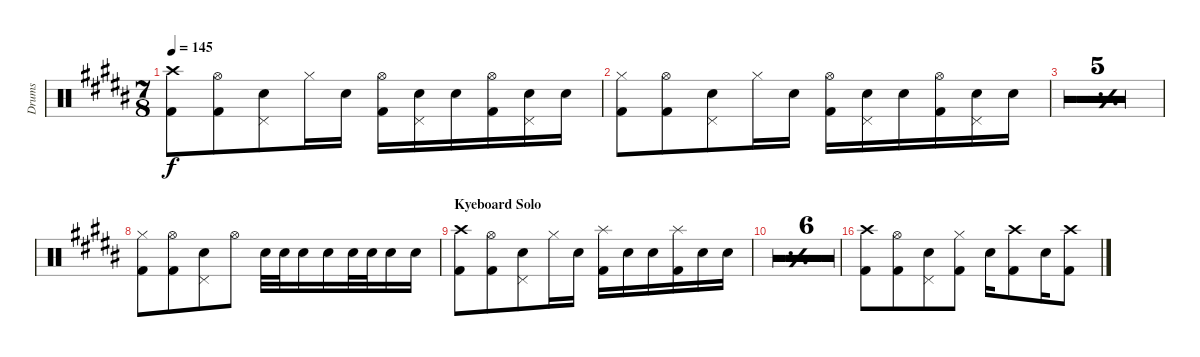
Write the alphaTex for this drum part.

\defaultSystemsLayout 4
\bracketExtendMode groupsimilarinstruments
\otherSystemsTrackNameOrientation horizontal
\track ("Drumkit" "Drums") {multiBarRest instrument percussion}
\staff {score}
\articulation defaults
\ts (7 8)
\tempo 145
\clef neutral
\ks b
("Kick (hit) 2"{acc forcenatural} "Crash high (hit)"{acc forcenatural}).8{dy f} ("Kick (hit) 2"{acc forcenatural} "Hi-Hat (open)"{acc forcenatural}).8 ("Pedal Hi-Hat (hit)"{acc forcenatural} "Snare (hit) 2"{acc forcenatural}).8 "Hi-Hat (closed)"{acc forcenatural}.16 "Snare (hit) 2"{acc forcenatural}.16 ("Hi-Hat (open)"{acc forcenatural} "Kick (hit) 2"{acc forcenatural}).16 ("Pedal Hi-Hat (hit)"{acc forcenatural} "Snare (hit) 2"{acc forcenatural}).16 "Snare (hit) 2"{acc forcenatural}.16 ("Hi-Hat (open)"{acc forcenatural} "Kick (hit) 2"{acc forcenatural}).16 ("Pedal Hi-Hat (hit)"{acc forcenatural} "Snare (hit) 2"{acc forcenatural}).16 "Snare (hit) 2"{acc forcenatural}.16 |
("Kick (hit) 2"{acc forcenatural} "Hi-Hat (closed)"{acc forcenatural}).8 ("Kick (hit) 2"{acc forcenatural} "Hi-Hat (open)"{acc forcenatural}).8 ("Pedal Hi-Hat (hit)"{acc forcenatural} "Snare (hit) 2"{acc forcenatural}).8 "Hi-Hat (closed)"{acc forcenatural}.16 "Snare (hit) 2"{acc forcenatural}.16 ("Hi-Hat (open)"{acc forcenatural} "Kick (hit) 2"{acc forcenatural}).16 ("Pedal Hi-Hat (hit)"{acc forcenatural} "Snare (hit) 2"{acc forcenatural}).16 "Snare (hit) 2"{acc forcenatural}.16 ("Hi-Hat (open)"{acc forcenatural} "Kick (hit) 2"{acc forcenatural}).16 ("Pedal Hi-Hat (hit)"{acc forcenatural} "Snare (hit) 2"{acc forcenatural}).16 "Snare (hit) 2"{acc forcenatural}.16 |
\simile simple
|
|
|
|
|
\simile none
("Kick (hit) 2"{acc forcenatural} "Hi-Hat (closed)"{acc forcenatural}).8 ("Kick (hit) 2"{acc forcenatural} "Hi-Hat (open)"{acc forcenatural}).8 ("Pedal Hi-Hat (hit)"{acc forcenatural} "Snare (hit) 2"{acc forcenatural}).8 "Hi-Hat (open)"{acc forcenatural}.8 "Snare (hit) 2"{acc forcenatural}.32 "Snare (hit) 2"{acc forcenatural}.32 "Snare (hit) 2"{acc forcenatural}.16 "Snare (hit) 2"{acc forcenatural}.16 "Snare (hit) 2"{acc forcenatural}.32 "Snare (hit) 2"{acc forcenatural}.32 "Snare (hit) 2"{acc forcenatural}.16 "Snare (hit) 2"{acc forcenatural}.16 |
\section ("" "Kyeboard Solo")
("Kick (hit) 2"{acc forcenatural} "Crash high (hit)"{acc forcenatural}).8 ("Kick (hit) 2"{acc forcenatural} "Hi-Hat (open)"{acc forcenatural}).8 ("Pedal Hi-Hat (hit)"{acc forcenatural} "Snare (hit) 2"{acc forcenatural}).8 "Hi-Hat (closed)"{acc forcenatural}.16 "Snare (hit) 2"{acc forcenatural}.16 ("Kick (hit) 2"{acc forcenatural} "Splash (hit)"{acc forcenatural}).16 "Snare (hit) 2"{acc forcenatural}.16 "Snare (hit) 2"{acc forcenatural}.16 ("Kick (hit) 2"{acc forcenatural} "Splash (hit)"{acc forcenatural}).16 "Snare (hit) 2"{acc forcenatural}.16 "Snare (hit) 2"{acc forcenatural}.16 |
\simile simple
|
|
|
|
|
|
\simile none
("Kick (hit) 2"{acc forcenatural} "Crash high (hit)"{acc forcenatural}).8 ("Kick (hit) 2"{acc forcenatural} "Hi-Hat (open)"{acc forcenatural}).8 ("Pedal Hi-Hat (hit)"{acc forcenatural} "Snare (hit) 2"{acc forcenatural}).8 ("Hi-Hat (closed)"{acc forcenatural} "Kick (hit) 2"{acc forcenatural}).8 "Snare (hit) 2"{acc forcenatural}.16 ("Kick (hit) 2"{acc forcenatural} "Crash high (hit)"{acc forcenatural}).8 "Snare (hit) 2"{acc forcenatural}.16 ("Kick (hit) 2"{acc forcenatural} "Crash high (hit)"{acc forcenatural}).8
